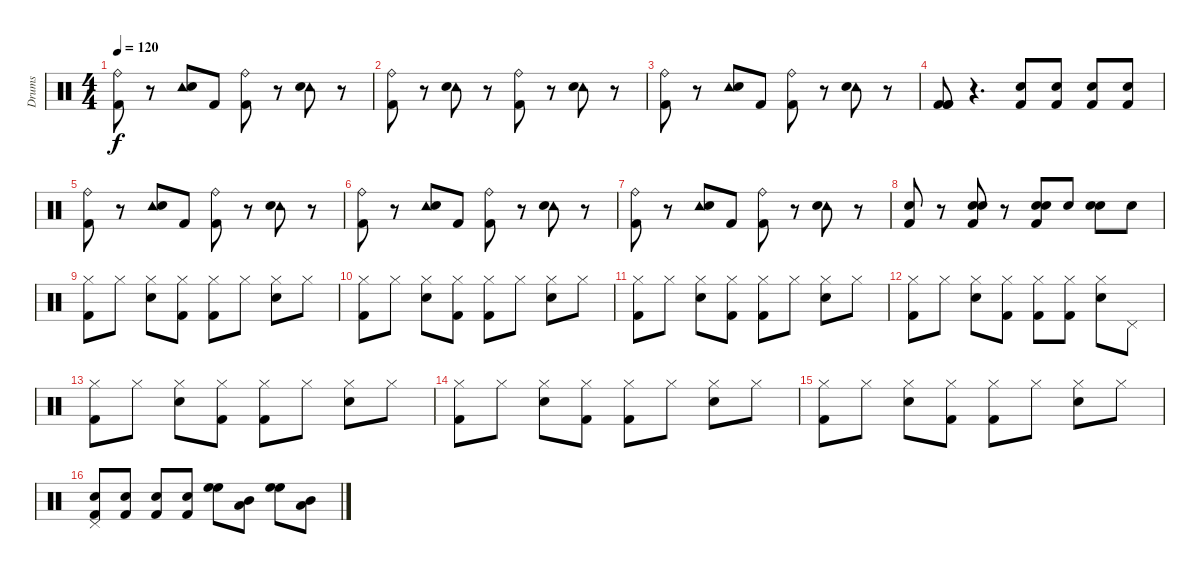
\track ("Drums" "Drums") {instrument percussion}
\staff {score}
\articulation defaults
\ts (4 4)
\tempo 120
\clef neutral
\ks c
("Ride (bell)" "Kick (hit) 2").8{dy f} r.8 ("Tambourine (hit)" "Snare (hit) 2").8 "Kick (hit) 2".8 ("Ride (bell)" "Kick (hit) 2").8 r.8 ("Tambourine (hit)" "Snare (hit) 2").8 r.8 |
("Ride (bell)" "Kick (hit) 2").8 r.8 ("Tambourine (hit)" "Snare (hit) 2").8 r.8 ("Ride (bell)" "Kick (hit) 2").8 r.8 ("Tambourine (hit)" "Snare (hit) 2").8 r.8 |
("Ride (bell)" "Kick (hit) 2").8 r.8 ("Tambourine (hit)" "Snare (hit) 2").8 "Kick (hit) 2".8 ("Ride (bell)" "Kick (hit) 2").8 r.8 ("Tambourine (hit)" "Snare (hit) 2").8 r.8 |
("Kick (hit) 2" "Kick (hit) 2" "Kick (hit) 2").8 r.4{d} ("Snare (hit) 2" "Kick (hit) 2").8 ("Snare (hit) 2" "Kick (hit) 2").8 ("Snare (hit) 2" "Kick (hit) 2").8 ("Snare (hit) 2" "Kick (hit) 2").8 |
("Ride (bell)" "Kick (hit) 2").8 r.8 ("Tambourine (hit)" "Snare (hit) 2").8 "Kick (hit) 2".8 ("Ride (bell)" "Kick (hit) 2").8 r.8 ("Tambourine (hit)" "Snare (hit) 2").8 r.8 |
("Ride (bell)" "Kick (hit) 2").8 r.8 ("Tambourine (hit)" "Snare (hit) 2").8 "Kick (hit) 2".8 ("Ride (bell)" "Kick (hit) 2").8 r.8 ("Tambourine (hit)" "Snare (hit) 2").8 r.8 |
("Ride (bell)" "Kick (hit) 2").8 r.8 ("Tambourine (hit)" "Snare (hit) 2").8 "Kick (hit) 2".8 ("Ride (bell)" "Kick (hit) 2").8 r.8 ("Tambourine (hit)" "Snare (hit) 2").8 r.8 |
("Kick (hit) 2" "Snare (hit) 2").8 r.8 ("Kick (hit) 2" "Snare (hit) 2" "Snare (hit) 2").8 r.8 ("Snare (hit) 2" "Kick (hit) 2" "Snare (hit) 2").8 "Snare (hit) 2".8 ("Snare (hit) 2" "Snare (hit) 2").8 "Snare (hit) 2".8 |
("Hi-Hat (closed)" "Kick (hit) 2").8 "Hi-Hat (closed)".8 ("Snare (hit) 2" "Hi-Hat (closed)").8 ("Hi-Hat (closed)" "Kick (hit) 2").8 ("Hi-Hat (closed)" "Kick (hit) 2").8 "Hi-Hat (closed)".8 ("Snare (hit) 2" "Hi-Hat (closed)").8 "Hi-Hat (closed)".8 |
("Hi-Hat (closed)" "Kick (hit) 2").8 "Hi-Hat (closed)".8 ("Snare (hit) 2" "Hi-Hat (closed)").8 ("Hi-Hat (closed)" "Kick (hit) 2").8 ("Hi-Hat (closed)" "Kick (hit) 2").8 "Hi-Hat (closed)".8 ("Snare (hit) 2" "Hi-Hat (closed)").8 "Hi-Hat (closed)".8 |
("Hi-Hat (closed)" "Kick (hit) 2").8 "Hi-Hat (closed)".8 ("Snare (hit) 2" "Hi-Hat (closed)").8 ("Hi-Hat (closed)" "Kick (hit) 2").8 ("Hi-Hat (closed)" "Kick (hit) 2").8 "Hi-Hat (closed)".8 ("Snare (hit) 2" "Hi-Hat (closed)").8 "Hi-Hat (closed)".8 |
("Hi-Hat (closed)" "Kick (hit) 2").8 "Hi-Hat (closed)".8 ("Snare (hit) 2" "Hi-Hat (closed)").8 ("Hi-Hat (closed)" "Kick (hit) 2").8 ("Hi-Hat (closed)" "Kick (hit) 2").8 ("Hi-Hat (closed)" "Kick (hit) 2").8 ("Snare (hit) 2" "Hi-Hat (closed)").8 "Pedal Hi-Hat (hit)".8 |
("Hi-Hat (closed)" "Kick (hit) 2").8 "Hi-Hat (closed)".8 ("Snare (hit) 2" "Hi-Hat (closed)").8 ("Hi-Hat (closed)" "Kick (hit) 2").8 ("Hi-Hat (closed)" "Kick (hit) 2").8 "Hi-Hat (closed)".8 ("Snare (hit) 2" "Hi-Hat (closed)").8 "Hi-Hat (closed)".8 |
("Hi-Hat (closed)" "Kick (hit) 2").8 "Hi-Hat (closed)".8 ("Snare (hit) 2" "Hi-Hat (closed)").8 ("Hi-Hat (closed)" "Kick (hit) 2").8 ("Hi-Hat (closed)" "Kick (hit) 2").8 "Hi-Hat (closed)".8 ("Snare (hit) 2" "Hi-Hat (closed)").8 "Hi-Hat (closed)".8 |
("Hi-Hat (closed)" "Kick (hit) 2").8 "Hi-Hat (closed)".8 ("Snare (hit) 2" "Hi-Hat (closed)").8 ("Hi-Hat (closed)" "Kick (hit) 2").8 ("Hi-Hat (closed)" "Kick (hit) 2").8 "Hi-Hat (closed)".8 ("Snare (hit) 2" "Hi-Hat (closed)").8 "Hi-Hat (closed)".8 |
("Pedal Hi-Hat (hit)" "Snare (hit) 2" "Kick (hit) 2").8 ("Snare (hit) 2" "Kick (hit) 2").8 ("Snare (hit) 2" "Kick (hit) 2").8 ("Snare (hit) 2" "Kick (hit) 2").8 ("High Floor Tom (hit)" "High Floor Tom (hit)").8 ("Mid Tom (hit)" "Low Tom (hit)").8 ("High Floor Tom (hit)" "High Floor Tom (hit)").8 ("Mid Tom (hit)" "Low Tom (hit)").8
